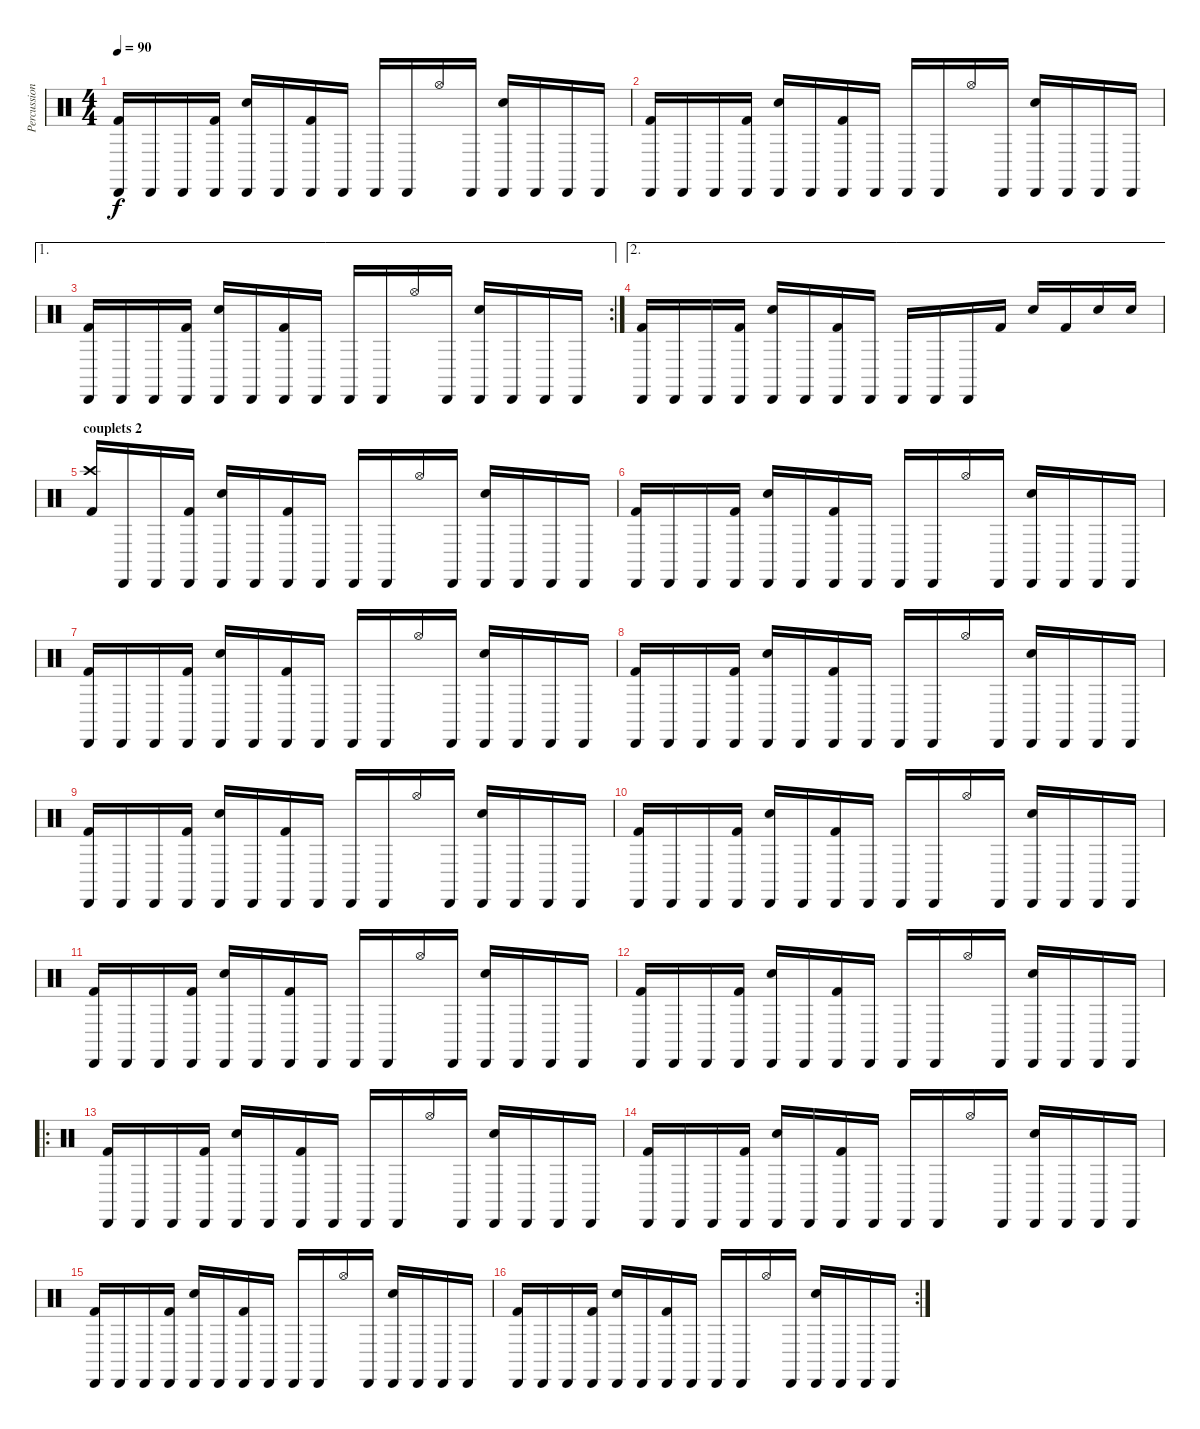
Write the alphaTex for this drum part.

\track ("Percussions" "Percussion") {instrument percussion}
\staff {score}
\articulation defaults
\ts (4 4)
\tempo 90
\clef neutral
\ks c
("Cabasa (hit)" "Kick (hit) 2").16{dy f} "Cabasa (hit)".16 "Cabasa (hit)".16 ("Cabasa (hit)" "Kick (hit) 2").16 ("Cabasa (hit)" "Electric Snare (hit)").16 "Cabasa (hit)".16 ("Cabasa (hit)" "Kick (hit) 2").16 "Cabasa (hit)".16 "Cabasa (hit)".16 "Cabasa (hit)".16 "Hi-Hat (open)".16 "Cabasa (hit)".16 ("Cabasa (hit)" "Electric Snare (hit)").16 "Cabasa (hit)".16 "Cabasa (hit)".16 "Cabasa (hit)".16 |
("Cabasa (hit)" "Kick (hit) 2").16 "Cabasa (hit)".16 "Cabasa (hit)".16 ("Cabasa (hit)" "Kick (hit) 2").16 ("Cabasa (hit)" "Electric Snare (hit)").16 "Cabasa (hit)".16 ("Cabasa (hit)" "Kick (hit) 2").16 "Cabasa (hit)".16 "Cabasa (hit)".16 "Cabasa (hit)".16 "Hi-Hat (open)".16 "Cabasa (hit)".16 ("Cabasa (hit)" "Electric Snare (hit)").16 "Cabasa (hit)".16 "Cabasa (hit)".16 "Cabasa (hit)".16 |
\ae 1
\rc 2
("Cabasa (hit)" "Kick (hit) 2").16 "Cabasa (hit)".16 "Cabasa (hit)".16 ("Cabasa (hit)" "Kick (hit) 2").16 ("Cabasa (hit)" "Electric Snare (hit)").16 "Cabasa (hit)".16 ("Cabasa (hit)" "Kick (hit) 2").16 "Cabasa (hit)".16 "Cabasa (hit)".16 "Cabasa (hit)".16 "Hi-Hat (open)".16 "Cabasa (hit)".16 ("Cabasa (hit)" "Electric Snare (hit)").16 "Cabasa (hit)".16 "Cabasa (hit)".16 "Cabasa (hit)".16 |
\ae 2
("Cabasa (hit)" "Kick (hit) 2").16 "Cabasa (hit)".16 "Cabasa (hit)".16 ("Cabasa (hit)" "Kick (hit) 2").16 ("Cabasa (hit)" "Electric Snare (hit)").16 "Cabasa (hit)".16 ("Cabasa (hit)" "Kick (hit) 2").16 "Cabasa (hit)".16 "Cabasa (hit)".16 "Cabasa (hit)".16 "Cabasa (hit)".16 "Kick (hit) 2".16 "Electric Snare (hit)".16 "Kick (hit) 2".16 "Electric Snare (hit)".16 "Electric Snare (hit)".16 |
\section ("" "couplets 2")
("Crash high (hit)" "Kick (hit) 2").16 "Cabasa (hit)".16 "Cabasa (hit)".16 ("Cabasa (hit)" "Kick (hit) 2").16 ("Cabasa (hit)" "Electric Snare (hit)").16 "Cabasa (hit)".16 ("Cabasa (hit)" "Kick (hit) 2").16 "Cabasa (hit)".16 "Cabasa (hit)".16 "Cabasa (hit)".16 "Hi-Hat (open)".16 "Cabasa (hit)".16 ("Cabasa (hit)" "Electric Snare (hit)").16 "Cabasa (hit)".16 "Cabasa (hit)".16 "Cabasa (hit)".16 |
("Cabasa (hit)" "Kick (hit) 2").16 "Cabasa (hit)".16 "Cabasa (hit)".16 ("Cabasa (hit)" "Kick (hit) 2").16 ("Cabasa (hit)" "Electric Snare (hit)").16 "Cabasa (hit)".16 ("Cabasa (hit)" "Kick (hit) 2").16 "Cabasa (hit)".16 "Cabasa (hit)".16 "Cabasa (hit)".16 "Hi-Hat (open)".16 "Cabasa (hit)".16 ("Cabasa (hit)" "Electric Snare (hit)").16 "Cabasa (hit)".16 "Cabasa (hit)".16 "Cabasa (hit)".16 |
("Cabasa (hit)" "Kick (hit) 2").16 "Cabasa (hit)".16 "Cabasa (hit)".16 ("Cabasa (hit)" "Kick (hit) 2").16 ("Cabasa (hit)" "Electric Snare (hit)").16 "Cabasa (hit)".16 ("Cabasa (hit)" "Kick (hit) 2").16 "Cabasa (hit)".16 "Cabasa (hit)".16 "Cabasa (hit)".16 "Hi-Hat (open)".16 "Cabasa (hit)".16 ("Cabasa (hit)" "Electric Snare (hit)").16 "Cabasa (hit)".16 "Cabasa (hit)".16 "Cabasa (hit)".16 |
("Cabasa (hit)" "Kick (hit) 2").16 "Cabasa (hit)".16 "Cabasa (hit)".16 ("Cabasa (hit)" "Kick (hit) 2").16 ("Cabasa (hit)" "Electric Snare (hit)").16 "Cabasa (hit)".16 ("Cabasa (hit)" "Kick (hit) 2").16 "Cabasa (hit)".16 "Cabasa (hit)".16 "Cabasa (hit)".16 "Hi-Hat (open)".16 "Cabasa (hit)".16 ("Cabasa (hit)" "Electric Snare (hit)").16 "Cabasa (hit)".16 "Cabasa (hit)".16 "Cabasa (hit)".16 |
("Cabasa (hit)" "Kick (hit) 2").16 "Cabasa (hit)".16 "Cabasa (hit)".16 ("Cabasa (hit)" "Kick (hit) 2").16 ("Cabasa (hit)" "Electric Snare (hit)").16 "Cabasa (hit)".16 ("Cabasa (hit)" "Kick (hit) 2").16 "Cabasa (hit)".16 "Cabasa (hit)".16 "Cabasa (hit)".16 "Hi-Hat (open)".16 "Cabasa (hit)".16 ("Cabasa (hit)" "Electric Snare (hit)").16 "Cabasa (hit)".16 "Cabasa (hit)".16 "Cabasa (hit)".16 |
("Cabasa (hit)" "Kick (hit) 2").16 "Cabasa (hit)".16 "Cabasa (hit)".16 ("Cabasa (hit)" "Kick (hit) 2").16 ("Cabasa (hit)" "Electric Snare (hit)").16 "Cabasa (hit)".16 ("Cabasa (hit)" "Kick (hit) 2").16 "Cabasa (hit)".16 "Cabasa (hit)".16 "Cabasa (hit)".16 "Hi-Hat (open)".16 "Cabasa (hit)".16 ("Cabasa (hit)" "Electric Snare (hit)").16 "Cabasa (hit)".16 "Cabasa (hit)".16 "Cabasa (hit)".16 |
("Cabasa (hit)" "Kick (hit) 2").16 "Cabasa (hit)".16 "Cabasa (hit)".16 ("Cabasa (hit)" "Kick (hit) 2").16 ("Cabasa (hit)" "Electric Snare (hit)").16 "Cabasa (hit)".16 ("Cabasa (hit)" "Kick (hit) 2").16 "Cabasa (hit)".16 "Cabasa (hit)".16 "Cabasa (hit)".16 "Hi-Hat (open)".16 "Cabasa (hit)".16 ("Cabasa (hit)" "Electric Snare (hit)").16 "Cabasa (hit)".16 "Cabasa (hit)".16 "Cabasa (hit)".16 |
("Cabasa (hit)" "Kick (hit) 2").16 "Cabasa (hit)".16 "Cabasa (hit)".16 ("Cabasa (hit)" "Kick (hit) 2").16 ("Cabasa (hit)" "Electric Snare (hit)").16 "Cabasa (hit)".16 ("Cabasa (hit)" "Kick (hit) 2").16 "Cabasa (hit)".16 "Cabasa (hit)".16 "Cabasa (hit)".16 "Hi-Hat (open)".16 "Cabasa (hit)".16 ("Cabasa (hit)" "Electric Snare (hit)").16 "Cabasa (hit)".16 "Cabasa (hit)".16 "Cabasa (hit)".16 |
\ro
("Cabasa (hit)" "Kick (hit) 2").16 "Cabasa (hit)".16 "Cabasa (hit)".16 ("Cabasa (hit)" "Kick (hit) 2").16 ("Cabasa (hit)" "Electric Snare (hit)").16 "Cabasa (hit)".16 ("Cabasa (hit)" "Kick (hit) 2").16 "Cabasa (hit)".16 "Cabasa (hit)".16 "Cabasa (hit)".16 "Hi-Hat (open)".16 "Cabasa (hit)".16 ("Cabasa (hit)" "Electric Snare (hit)").16 "Cabasa (hit)".16 "Cabasa (hit)".16 "Cabasa (hit)".16 |
("Cabasa (hit)" "Kick (hit) 2").16 "Cabasa (hit)".16 "Cabasa (hit)".16 ("Cabasa (hit)" "Kick (hit) 2").16 ("Cabasa (hit)" "Electric Snare (hit)").16 "Cabasa (hit)".16 ("Cabasa (hit)" "Kick (hit) 2").16 "Cabasa (hit)".16 "Cabasa (hit)".16 "Cabasa (hit)".16 "Hi-Hat (open)".16 "Cabasa (hit)".16 ("Cabasa (hit)" "Electric Snare (hit)").16 "Cabasa (hit)".16 "Cabasa (hit)".16 "Cabasa (hit)".16 |
("Cabasa (hit)" "Kick (hit) 2").16 "Cabasa (hit)".16 "Cabasa (hit)".16 ("Cabasa (hit)" "Kick (hit) 2").16 ("Cabasa (hit)" "Electric Snare (hit)").16 "Cabasa (hit)".16 ("Cabasa (hit)" "Kick (hit) 2").16 "Cabasa (hit)".16 "Cabasa (hit)".16 "Cabasa (hit)".16 "Hi-Hat (open)".16 "Cabasa (hit)".16 ("Cabasa (hit)" "Electric Snare (hit)").16 "Cabasa (hit)".16 "Cabasa (hit)".16 "Cabasa (hit)".16 |
\rc 2
("Cabasa (hit)" "Kick (hit) 2").16 "Cabasa (hit)".16 "Cabasa (hit)".16 ("Cabasa (hit)" "Kick (hit) 2").16 ("Cabasa (hit)" "Electric Snare (hit)").16 "Cabasa (hit)".16 ("Cabasa (hit)" "Kick (hit) 2").16 "Cabasa (hit)".16 "Cabasa (hit)".16 "Cabasa (hit)".16 "Hi-Hat (open)".16 "Cabasa (hit)".16 ("Cabasa (hit)" "Electric Snare (hit)").16 "Cabasa (hit)".16 "Cabasa (hit)".16 "Cabasa (hit)".16
